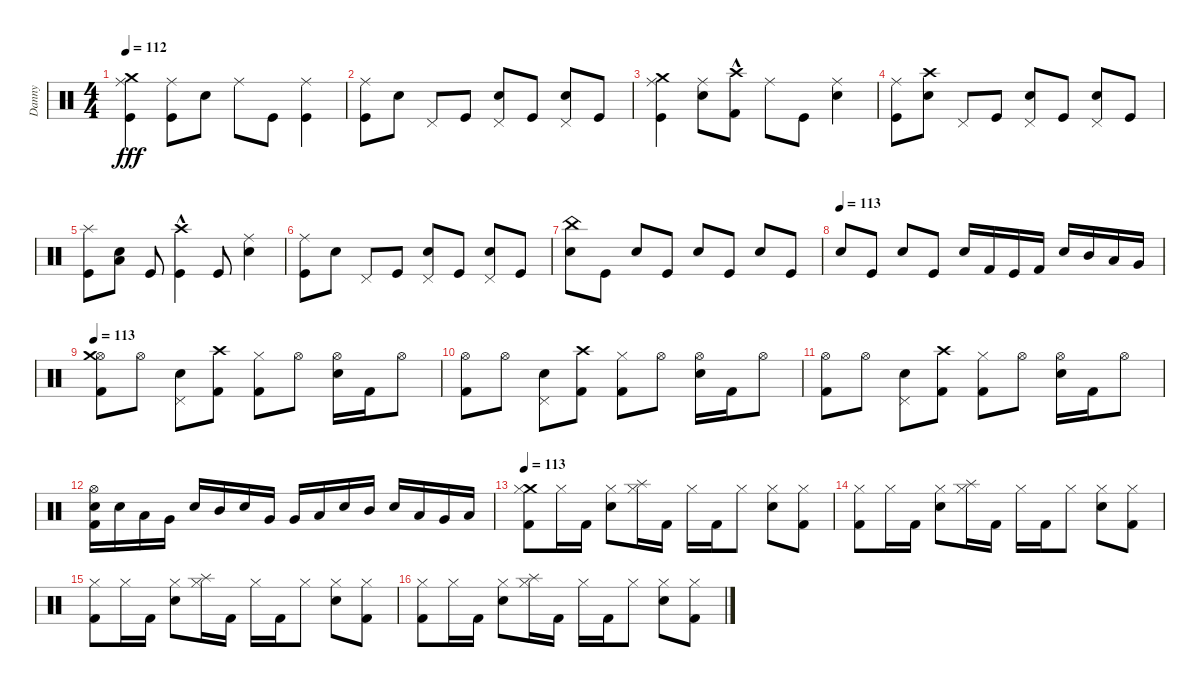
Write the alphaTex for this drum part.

\track ("Danny" "Danny") {instrument percussion}
\staff {score}
\articulation defaults
\ts (4 4)
\tempo 112
\clef neutral
\ks c
("Ride (middle)" "Crash medium (hit)" "Kick (hit)").4{dy fff} ("Ride (middle)" "Kick (hit)").8 "Snare (hit) 2".8 "Ride (middle)".8 "Kick (hit)".8 ("Ride (middle)" "Kick (hit)").4 |
("Ride (middle)" "Kick (hit)").8 "Snare (hit) 2".8 "Pedal Hi-Hat (hit)".8 "Kick (hit)".8 ("Pedal Hi-Hat (hit)" "Snare (hit) 2").8 "Kick (hit)".8 ("Pedal Hi-Hat (hit)" "Snare (hit) 2").8 "Kick (hit)".8 |
("Ride (middle)" "Crash medium (hit)" "Kick (hit)").4 ("Ride (middle)" "Snare (hit) 2").8 ("Crash high (hit)"{hac} "Kick (hit) 2").8 "Ride (middle)".8 "Kick (hit)".8 ("Ride (middle)" "Snare (hit) 2").4 |
("Ride (middle)" "Kick (hit)").8 ("Crash high (hit)" "Snare (hit) 2").8 "Pedal Hi-Hat (hit)".8 "Kick (hit)".8 ("Pedal Hi-Hat (hit)" "Snare (hit) 2").8 "Kick (hit)".8 ("Pedal Hi-Hat (hit)" "Snare (hit) 2").8 "Kick (hit)".8 |
("Splash (hit)" "Kick (hit)").8 ("Low Tom (hit)" "Snare (hit) 2").8 "Kick (hit)".8 ("Kick (hit)" "Crash high (hit)"{hac}).4 "Kick (hit)".8 ("Ride (middle)" "Snare (hit) 2").4 |
("Ride (middle)" "Kick (hit)").8 "Snare (hit) 2".8 "Pedal Hi-Hat (hit)".8 "Kick (hit)".8 ("Pedal Hi-Hat (hit)" "Snare (hit) 2").8 "Kick (hit)".8 ("Pedal Hi-Hat (hit)" "Snare (hit) 2").8 "Kick (hit)".8 |
("Snare (hit) 2" "China (hit)").8 "Kick (hit)".8 "Snare (hit) 2".8 "Kick (hit)".8 "Snare (hit) 2".8 "Kick (hit)".8 "Snare (hit) 2".8 "Kick (hit)".8 |
\tempo (113)
"Snare (hit) 2".8 "Kick (hit)".8 "Snare (hit) 2".8 "Kick (hit)".8 "Snare (hit) 2".16 "Kick (hit) 2".16 "Kick (hit)".16 "Kick (hit) 2".16 "Snare (hit) 2".16 "Mid Tom (hit)".16 "Low Tom (hit)".16 "Very Low Tom (hit)".16 |
\tempo 113
("Kick (hit) 2" "Hi-Hat (open)" "Crash medium (hit)").8 "Hi-Hat (open)".8 ("Snare (hit) 2" "Pedal Hi-Hat (hit)").8 ("Kick (hit) 2" "Crash high (hit)").8 ("Kick (hit) 2" "Hi-Hat (closed)").8 "Hi-Hat (open)".8 ("Snare (hit) 2" "Hi-Hat (open)").16 "Kick (hit) 2".16 "Hi-Hat (open)".8 |
("Kick (hit) 2" "Hi-Hat (open)").8 "Hi-Hat (open)".8 ("Snare (hit) 2" "Pedal Hi-Hat (hit)").8 ("Kick (hit) 2" "Crash high (hit)").8 ("Kick (hit) 2" "Hi-Hat (closed)").8 "Hi-Hat (open)".8 ("Snare (hit) 2" "Hi-Hat (open)").16 "Kick (hit) 2".16 "Hi-Hat (open)".8 |
("Kick (hit) 2" "Hi-Hat (open)").8 "Hi-Hat (open)".8 ("Snare (hit) 2" "Pedal Hi-Hat (hit)").8 ("Kick (hit) 2" "Crash high (hit)").8 ("Kick (hit) 2" "Hi-Hat (closed)").8 "Hi-Hat (open)".8 ("Snare (hit) 2" "Hi-Hat (open)").16 "Kick (hit) 2".16 "Hi-Hat (open)".8 |
("Kick (hit) 2" "Hi-Hat (open)" "Snare (hit) 2").16 "Snare (hit) 2".16 "Low Tom (hit)".16 "Very Low Tom (hit)".16 "Snare (hit) 2".16 "Mid Tom (hit)".16 "Snare (hit) 2".16 "Very Low Tom (hit)".16 "Very Low Tom (hit)".16 "Low Floor Tom (hit)".16 "Snare (hit) 2".16 "Mid Tom (hit)".16 "Snare (hit) 2".16 "Low Tom (hit)".16 "Very Low Tom (hit)".16 "Low Floor Tom (hit)".16 |
\tempo 113
("Crash medium (hit)" "Kick (hit) 2" "Hi-Hat (closed)").8 "Hi-Hat (closed)".16 "Kick (hit) 2".16 ("Snare (hit) 2" "Hi-Hat (closed)").8 ("Splash (hit)" "Hi-Hat (closed)").16 "Kick (hit) 2".16 "Hi-Hat (closed)".16 "Kick (hit) 2".16 "Hi-Hat (closed)".8 ("Snare (hit) 2" "Hi-Hat (closed)").8 ("Kick (hit) 2" "Hi-Hat (closed)").8 |
("Kick (hit) 2" "Hi-Hat (closed)").8 "Hi-Hat (closed)".16 "Kick (hit) 2".16 ("Snare (hit) 2" "Hi-Hat (closed)").8 ("Splash (hit)" "Hi-Hat (closed)").16 "Kick (hit) 2".16 "Hi-Hat (closed)".16 "Kick (hit) 2".16 "Hi-Hat (closed)".8 ("Snare (hit) 2" "Hi-Hat (closed)").8 ("Kick (hit) 2" "Hi-Hat (closed)").8 |
("Kick (hit) 2" "Hi-Hat (closed)").8 "Hi-Hat (closed)".16 "Kick (hit) 2".16 ("Snare (hit) 2" "Hi-Hat (closed)").8 ("Splash (hit)" "Hi-Hat (closed)").16 "Kick (hit) 2".16 "Hi-Hat (closed)".16 "Kick (hit) 2".16 "Hi-Hat (closed)".8 ("Snare (hit) 2" "Hi-Hat (closed)").8 ("Kick (hit) 2" "Hi-Hat (closed)").8 |
("Kick (hit) 2" "Hi-Hat (closed)").8 "Hi-Hat (closed)".16 "Kick (hit) 2".16 ("Snare (hit) 2" "Hi-Hat (closed)").8 ("Splash (hit)" "Hi-Hat (closed)").16 "Kick (hit) 2".16 "Hi-Hat (closed)".16 "Kick (hit) 2".16 "Hi-Hat (closed)".8 ("Snare (hit) 2" "Hi-Hat (closed)").8 ("Kick (hit) 2" "Hi-Hat (closed)").8
